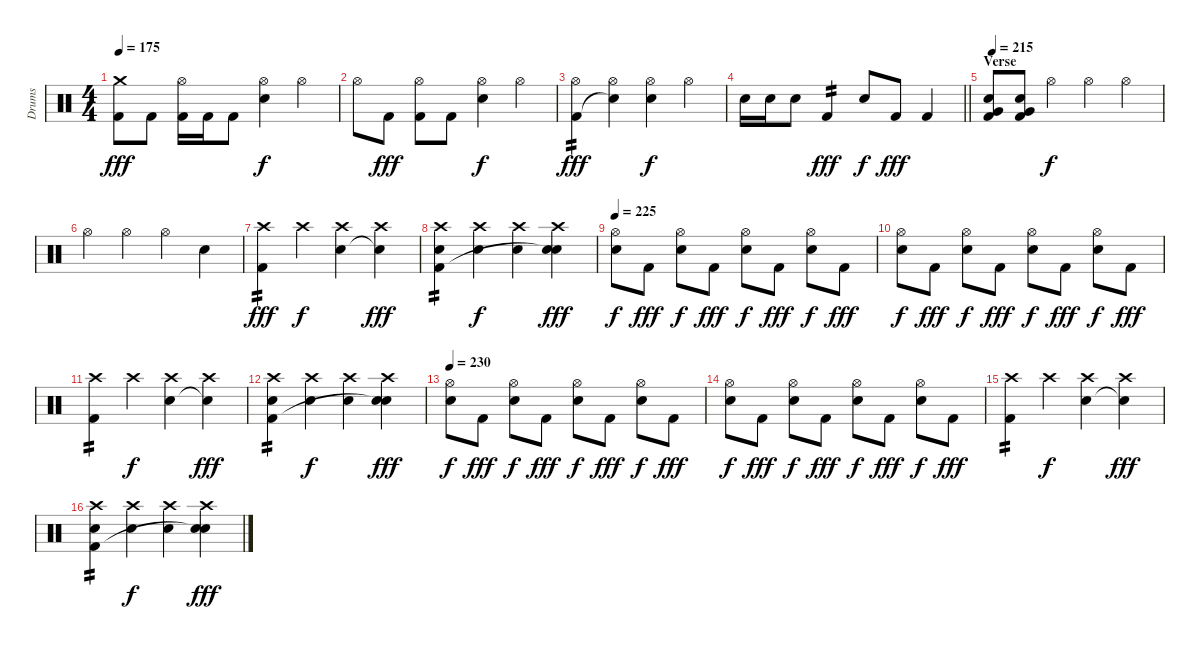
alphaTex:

\track ("Drums" "Drums") {instrument percussion}
\staff {score}
\articulation defaults
\ts (4 4)
\tempo 175
\clef neutral
\ks c
("Crash medium (hit)" "Kick (hit) 2").8{dy fff} "Kick (hit) 2".8 ("Hi-Hat (open)" "Kick (hit) 2").16 "Kick (hit) 2".16 "Kick (hit) 2".8 ("Hi-Hat (open)" "Electric Snare (hit)").4{dy f} "Hi-Hat (open)".4 |
"Hi-Hat (open)".8 "Kick (hit) 2".8{dy fff} ("Hi-Hat (open)" "Kick (hit) 2").8 "Kick (hit) 2".8 ("Hi-Hat (open)" "Electric Snare (hit)").4{dy f} "Hi-Hat (open)".4 |
("Hi-Hat (open)" "Kick (hit) 2").4{tp 2 dy fff} ("Hi-Hat (open)" "Snare (hit)"{t}).4 ("Hi-Hat (open)" "Electric Snare (hit)").4{dy f} "Hi-Hat (open)".4 |
\barLineRight lightlight "Electric Snare (hit)".16 "Electric Snare (hit)".16 "Electric Snare (hit)".8 "Kick (hit) 2".4{tp 2 dy fff} "Electric Snare (hit)".8{dy f} "Kick (hit) 2".8{dy fff} "Kick (hit) 2".4
|
\section ("" "Verse")
\tempo 215
("Very Low Tom (hit)" "Electric Snare (hit)" "Kick (hit) 2").8 ("Very Low Tom (hit)" "Electric Snare (hit)" "Kick (hit) 2").8 "Hi-Hat (open)".4{dy f} "Hi-Hat (open)".4 "Hi-Hat (open)".4 |
"Hi-Hat (open)".4 "Hi-Hat (open)".4 "Hi-Hat (open)".4 "Electric Snare (hit)".4 |
("Crash high (hit)" "Kick (hit) 2").4{tp 2 dy fff} "Crash high (hit)".4{dy f} ("Crash high (hit)" "Electric Snare (hit)").4 ("Crash high (hit)" "Snare (hit)"{t}).4{dy fff} |
("Crash high (hit)" "Electric Snare (hit)" "Kick (hit) 2").4{tp 2} ("Crash high (hit)" "Electric Snare (hit)").4{dy f} ("Crash high (hit)" "Electric Snare (hit)").4 ("Crash high (hit)" "Electric Snare (hit)" "Snare (hit)"{t}).4{dy fff} |
\tempo 225
("Hi-Hat (open)" "Electric Snare (hit)").8{dy f} "Kick (hit) 2".8{dy fff} ("Hi-Hat (open)" "Electric Snare (hit)").8{dy f} "Kick (hit) 2".8{dy fff} ("Hi-Hat (open)" "Electric Snare (hit)").8{dy f} "Kick (hit) 2".8{dy fff} ("Hi-Hat (open)" "Electric Snare (hit)").8{dy f} "Kick (hit) 2".8{dy fff} |
("Hi-Hat (open)" "Electric Snare (hit)").8{dy f} "Kick (hit) 2".8{dy fff} ("Hi-Hat (open)" "Electric Snare (hit)").8{dy f} "Kick (hit) 2".8{dy fff} ("Hi-Hat (open)" "Electric Snare (hit)").8{dy f} "Kick (hit) 2".8{dy fff} ("Hi-Hat (open)" "Electric Snare (hit)").8{dy f} "Kick (hit) 2".8{dy fff} |
("Crash high (hit)" "Kick (hit) 2").4{tp 2} "Crash high (hit)".4{dy f} ("Crash high (hit)" "Electric Snare (hit)").4 ("Crash high (hit)" "Snare (hit)"{t}).4{dy fff} |
("Crash high (hit)" "Electric Snare (hit)" "Kick (hit) 2").4{tp 2} ("Crash high (hit)" "Electric Snare (hit)").4{dy f} ("Crash high (hit)" "Electric Snare (hit)").4 ("Crash high (hit)" "Electric Snare (hit)" "Snare (hit)"{t}).4{dy fff} |
\tempo 230
("Hi-Hat (open)" "Electric Snare (hit)").8{dy f} "Kick (hit) 2".8{dy fff} ("Hi-Hat (open)" "Electric Snare (hit)").8{dy f} "Kick (hit) 2".8{dy fff} ("Hi-Hat (open)" "Electric Snare (hit)").8{dy f} "Kick (hit) 2".8{dy fff} ("Hi-Hat (open)" "Electric Snare (hit)").8{dy f} "Kick (hit) 2".8{dy fff} |
("Hi-Hat (open)" "Electric Snare (hit)").8{dy f} "Kick (hit) 2".8{dy fff} ("Hi-Hat (open)" "Electric Snare (hit)").8{dy f} "Kick (hit) 2".8{dy fff} ("Hi-Hat (open)" "Electric Snare (hit)").8{dy f} "Kick (hit) 2".8{dy fff} ("Hi-Hat (open)" "Electric Snare (hit)").8{dy f} "Kick (hit) 2".8{dy fff} |
("Crash high (hit)" "Kick (hit) 2").4{tp 2} "Crash high (hit)".4{dy f} ("Crash high (hit)" "Electric Snare (hit)").4 ("Crash high (hit)" "Snare (hit)"{t}).4{dy fff} |
("Crash high (hit)" "Electric Snare (hit)" "Kick (hit) 2").4{tp 2} ("Crash high (hit)" "Electric Snare (hit)").4{dy f} ("Crash high (hit)" "Electric Snare (hit)").4 ("Crash high (hit)" "Electric Snare (hit)" "Snare (hit)"{t}).4{dy fff}
